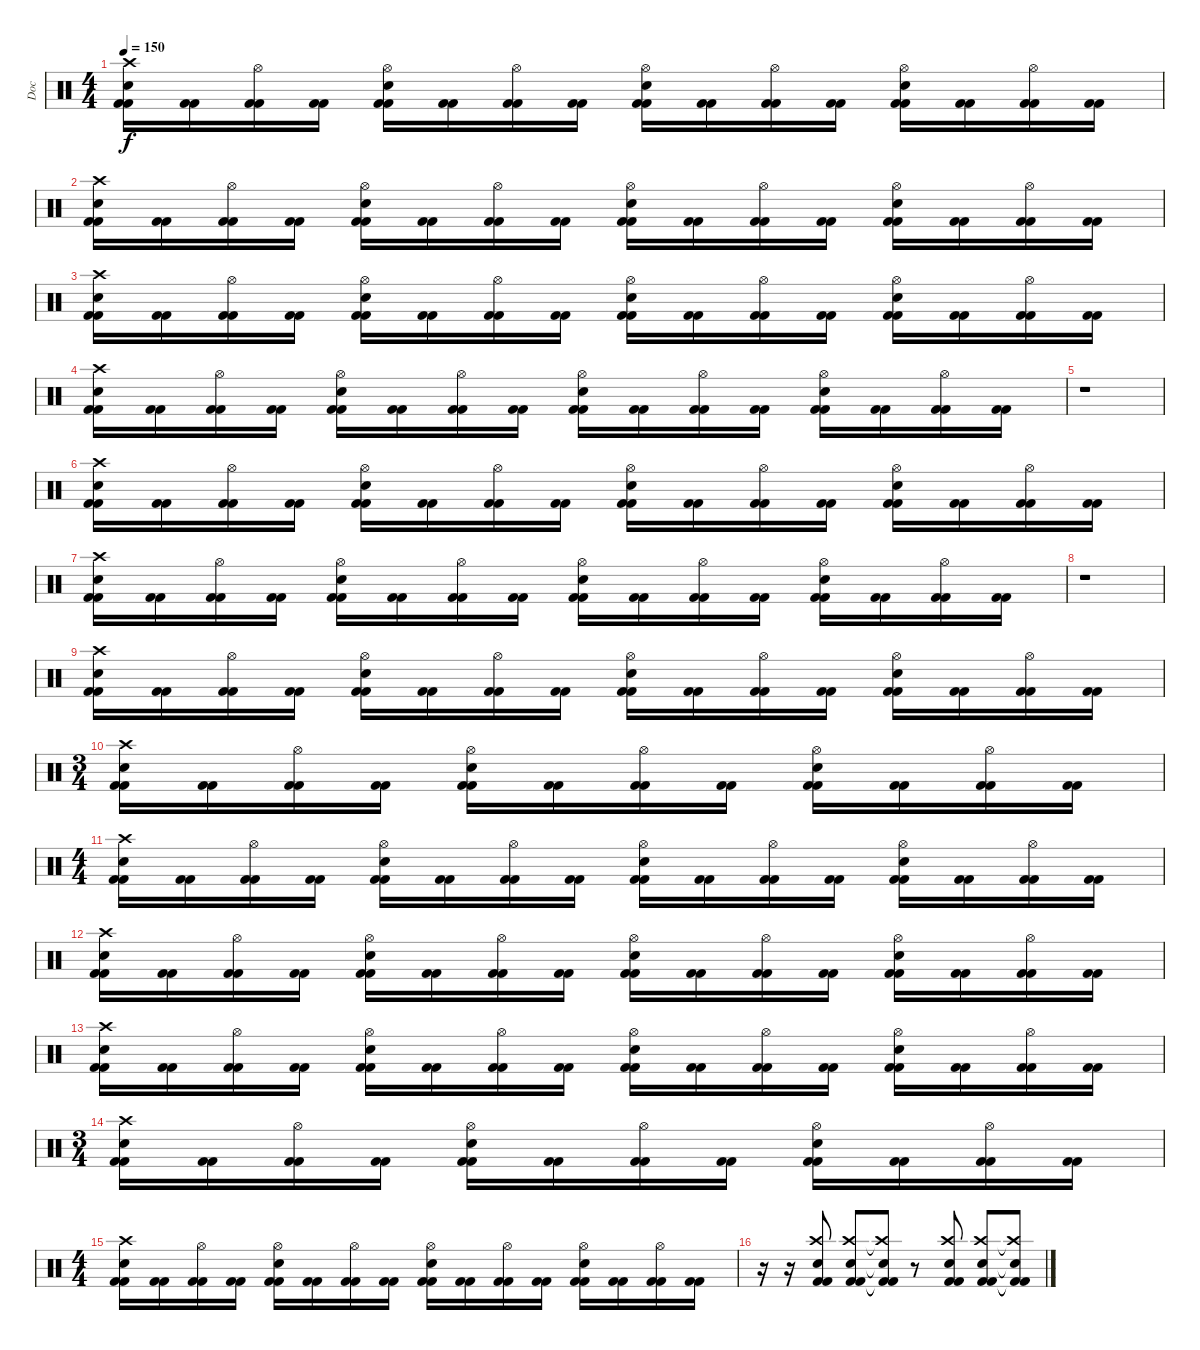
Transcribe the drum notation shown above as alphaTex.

\track ("Doc" "Doc") {instrument percussion}
\staff {score}
\articulation defaults
\ts (4 4)
\tempo 150
\clef neutral
\ks c
("Kick (hit) 2" "Crash high (hit)" "Electric Snare (hit)" "Kick (hit) 2").16{dy f} ("Kick (hit) 2" "Kick (hit) 2").16 ("Kick (hit) 2" "Hi-Hat (open)" "Kick (hit) 2").16 ("Kick (hit) 2" "Kick (hit) 2").16 ("Kick (hit) 2" "Hi-Hat (open)" "Electric Snare (hit)" "Kick (hit) 2").16 ("Kick (hit) 2" "Kick (hit) 2").16 ("Kick (hit) 2" "Hi-Hat (open)" "Kick (hit) 2").16 ("Kick (hit) 2" "Kick (hit) 2").16 ("Kick (hit) 2" "Hi-Hat (open)" "Electric Snare (hit)" "Kick (hit) 2").16 ("Kick (hit) 2" "Kick (hit) 2").16 ("Kick (hit) 2" "Hi-Hat (open)" "Kick (hit) 2").16 ("Kick (hit) 2" "Kick (hit) 2").16 ("Kick (hit) 2" "Hi-Hat (open)" "Electric Snare (hit)" "Kick (hit) 2").16 ("Kick (hit) 2" "Kick (hit) 2").16 ("Kick (hit) 2" "Hi-Hat (open)" "Kick (hit) 2").16 ("Kick (hit) 2" "Kick (hit) 2").16 |
("Kick (hit) 2" "Crash high (hit)" "Electric Snare (hit)" "Kick (hit) 2").16 ("Kick (hit) 2" "Kick (hit) 2").16 ("Kick (hit) 2" "Hi-Hat (open)" "Kick (hit) 2").16 ("Kick (hit) 2" "Kick (hit) 2").16 ("Kick (hit) 2" "Hi-Hat (open)" "Electric Snare (hit)" "Kick (hit) 2").16 ("Kick (hit) 2" "Kick (hit) 2").16 ("Kick (hit) 2" "Hi-Hat (open)" "Kick (hit) 2").16 ("Kick (hit) 2" "Kick (hit) 2").16 ("Kick (hit) 2" "Hi-Hat (open)" "Electric Snare (hit)" "Kick (hit) 2").16 ("Kick (hit) 2" "Kick (hit) 2").16 ("Kick (hit) 2" "Hi-Hat (open)" "Kick (hit) 2").16 ("Kick (hit) 2" "Kick (hit) 2").16 ("Kick (hit) 2" "Hi-Hat (open)" "Electric Snare (hit)" "Kick (hit) 2").16 ("Kick (hit) 2" "Kick (hit) 2").16 ("Kick (hit) 2" "Hi-Hat (open)" "Kick (hit) 2").16 ("Kick (hit) 2" "Kick (hit) 2").16 |
("Kick (hit) 2" "Crash high (hit)" "Electric Snare (hit)" "Kick (hit) 2").16 ("Kick (hit) 2" "Kick (hit) 2").16 ("Kick (hit) 2" "Hi-Hat (open)" "Kick (hit) 2").16 ("Kick (hit) 2" "Kick (hit) 2").16 ("Kick (hit) 2" "Hi-Hat (open)" "Electric Snare (hit)" "Kick (hit) 2").16 ("Kick (hit) 2" "Kick (hit) 2").16 ("Kick (hit) 2" "Hi-Hat (open)" "Kick (hit) 2").16 ("Kick (hit) 2" "Kick (hit) 2").16 ("Kick (hit) 2" "Hi-Hat (open)" "Electric Snare (hit)" "Kick (hit) 2").16 ("Kick (hit) 2" "Kick (hit) 2").16 ("Kick (hit) 2" "Hi-Hat (open)" "Kick (hit) 2").16 ("Kick (hit) 2" "Kick (hit) 2").16 ("Kick (hit) 2" "Hi-Hat (open)" "Electric Snare (hit)" "Kick (hit) 2").16 ("Kick (hit) 2" "Kick (hit) 2").16 ("Kick (hit) 2" "Hi-Hat (open)" "Kick (hit) 2").16 ("Kick (hit) 2" "Kick (hit) 2").16 |
("Kick (hit) 2" "Crash high (hit)" "Electric Snare (hit)" "Kick (hit) 2").16 ("Kick (hit) 2" "Kick (hit) 2").16 ("Kick (hit) 2" "Hi-Hat (open)" "Kick (hit) 2").16 ("Kick (hit) 2" "Kick (hit) 2").16 ("Kick (hit) 2" "Hi-Hat (open)" "Electric Snare (hit)" "Kick (hit) 2").16 ("Kick (hit) 2" "Kick (hit) 2").16 ("Kick (hit) 2" "Hi-Hat (open)" "Kick (hit) 2").16 ("Kick (hit) 2" "Kick (hit) 2").16 ("Kick (hit) 2" "Hi-Hat (open)" "Electric Snare (hit)" "Kick (hit) 2").16 ("Kick (hit) 2" "Kick (hit) 2").16 ("Kick (hit) 2" "Hi-Hat (open)" "Kick (hit) 2").16 ("Kick (hit) 2" "Kick (hit) 2").16 ("Kick (hit) 2" "Hi-Hat (open)" "Electric Snare (hit)" "Kick (hit) 2").16 ("Kick (hit) 2" "Kick (hit) 2").16 ("Kick (hit) 2" "Hi-Hat (open)" "Kick (hit) 2").16 ("Kick (hit) 2" "Kick (hit) 2").16 |
r.1 |
("Kick (hit) 2" "Crash high (hit)" "Electric Snare (hit)" "Kick (hit) 2").16 ("Kick (hit) 2" "Kick (hit) 2").16 ("Kick (hit) 2" "Hi-Hat (open)" "Kick (hit) 2").16 ("Kick (hit) 2" "Kick (hit) 2").16 ("Kick (hit) 2" "Hi-Hat (open)" "Electric Snare (hit)" "Kick (hit) 2").16 ("Kick (hit) 2" "Kick (hit) 2").16 ("Kick (hit) 2" "Hi-Hat (open)" "Kick (hit) 2").16 ("Kick (hit) 2" "Kick (hit) 2").16 ("Kick (hit) 2" "Hi-Hat (open)" "Electric Snare (hit)" "Kick (hit) 2").16 ("Kick (hit) 2" "Kick (hit) 2").16 ("Kick (hit) 2" "Hi-Hat (open)" "Kick (hit) 2").16 ("Kick (hit) 2" "Kick (hit) 2").16 ("Kick (hit) 2" "Hi-Hat (open)" "Electric Snare (hit)" "Kick (hit) 2").16 ("Kick (hit) 2" "Kick (hit) 2").16 ("Kick (hit) 2" "Hi-Hat (open)" "Kick (hit) 2").16 ("Kick (hit) 2" "Kick (hit) 2").16 |
("Kick (hit) 2" "Crash high (hit)" "Electric Snare (hit)" "Kick (hit) 2").16 ("Kick (hit) 2" "Kick (hit) 2").16 ("Kick (hit) 2" "Hi-Hat (open)" "Kick (hit) 2").16 ("Kick (hit) 2" "Kick (hit) 2").16 ("Kick (hit) 2" "Hi-Hat (open)" "Electric Snare (hit)" "Kick (hit) 2").16 ("Kick (hit) 2" "Kick (hit) 2").16 ("Kick (hit) 2" "Hi-Hat (open)" "Kick (hit) 2").16 ("Kick (hit) 2" "Kick (hit) 2").16 ("Kick (hit) 2" "Hi-Hat (open)" "Electric Snare (hit)" "Kick (hit) 2").16 ("Kick (hit) 2" "Kick (hit) 2").16 ("Kick (hit) 2" "Hi-Hat (open)" "Kick (hit) 2").16 ("Kick (hit) 2" "Kick (hit) 2").16 ("Kick (hit) 2" "Hi-Hat (open)" "Electric Snare (hit)" "Kick (hit) 2").16 ("Kick (hit) 2" "Kick (hit) 2").16 ("Kick (hit) 2" "Hi-Hat (open)" "Kick (hit) 2").16 ("Kick (hit) 2" "Kick (hit) 2").16 |
r.1 |
("Kick (hit) 2" "Crash high (hit)" "Electric Snare (hit)" "Kick (hit) 2").16 ("Kick (hit) 2" "Kick (hit) 2").16 ("Kick (hit) 2" "Hi-Hat (open)" "Kick (hit) 2").16 ("Kick (hit) 2" "Kick (hit) 2").16 ("Kick (hit) 2" "Hi-Hat (open)" "Electric Snare (hit)" "Kick (hit) 2").16 ("Kick (hit) 2" "Kick (hit) 2").16 ("Kick (hit) 2" "Hi-Hat (open)" "Kick (hit) 2").16 ("Kick (hit) 2" "Kick (hit) 2").16 ("Kick (hit) 2" "Hi-Hat (open)" "Electric Snare (hit)" "Kick (hit) 2").16 ("Kick (hit) 2" "Kick (hit) 2").16 ("Kick (hit) 2" "Hi-Hat (open)" "Kick (hit) 2").16 ("Kick (hit) 2" "Kick (hit) 2").16 ("Kick (hit) 2" "Hi-Hat (open)" "Electric Snare (hit)" "Kick (hit) 2").16 ("Kick (hit) 2" "Kick (hit) 2").16 ("Kick (hit) 2" "Hi-Hat (open)" "Kick (hit) 2").16 ("Kick (hit) 2" "Kick (hit) 2").16 |
\ts (3 4)
("Kick (hit) 2" "Crash high (hit)" "Electric Snare (hit)" "Kick (hit) 2").16 ("Kick (hit) 2" "Kick (hit) 2").16 ("Kick (hit) 2" "Hi-Hat (open)" "Kick (hit) 2").16 ("Kick (hit) 2" "Kick (hit) 2").16 ("Kick (hit) 2" "Hi-Hat (open)" "Electric Snare (hit)" "Kick (hit) 2").16 ("Kick (hit) 2" "Kick (hit) 2").16 ("Kick (hit) 2" "Hi-Hat (open)" "Kick (hit) 2").16 ("Kick (hit) 2" "Kick (hit) 2").16 ("Kick (hit) 2" "Hi-Hat (open)" "Electric Snare (hit)" "Kick (hit) 2").16 ("Kick (hit) 2" "Kick (hit) 2").16 ("Kick (hit) 2" "Hi-Hat (open)" "Kick (hit) 2").16 ("Kick (hit) 2" "Kick (hit) 2").16 |
\ts (4 4)
("Kick (hit) 2" "Crash high (hit)" "Electric Snare (hit)" "Kick (hit) 2").16 ("Kick (hit) 2" "Kick (hit) 2").16 ("Kick (hit) 2" "Hi-Hat (open)" "Kick (hit) 2").16 ("Kick (hit) 2" "Kick (hit) 2").16 ("Kick (hit) 2" "Hi-Hat (open)" "Electric Snare (hit)" "Kick (hit) 2").16 ("Kick (hit) 2" "Kick (hit) 2").16 ("Kick (hit) 2" "Hi-Hat (open)" "Kick (hit) 2").16 ("Kick (hit) 2" "Kick (hit) 2").16 ("Kick (hit) 2" "Hi-Hat (open)" "Electric Snare (hit)" "Kick (hit) 2").16 ("Kick (hit) 2" "Kick (hit) 2").16 ("Kick (hit) 2" "Hi-Hat (open)" "Kick (hit) 2").16 ("Kick (hit) 2" "Kick (hit) 2").16 ("Kick (hit) 2" "Hi-Hat (open)" "Electric Snare (hit)" "Kick (hit) 2").16 ("Kick (hit) 2" "Kick (hit) 2").16 ("Kick (hit) 2" "Hi-Hat (open)" "Kick (hit) 2").16 ("Kick (hit) 2" "Kick (hit) 2").16 |
("Kick (hit) 2" "Crash high (hit)" "Electric Snare (hit)" "Kick (hit) 2").16 ("Kick (hit) 2" "Kick (hit) 2").16 ("Kick (hit) 2" "Hi-Hat (open)" "Kick (hit) 2").16 ("Kick (hit) 2" "Kick (hit) 2").16 ("Kick (hit) 2" "Hi-Hat (open)" "Electric Snare (hit)" "Kick (hit) 2").16 ("Kick (hit) 2" "Kick (hit) 2").16 ("Kick (hit) 2" "Hi-Hat (open)" "Kick (hit) 2").16 ("Kick (hit) 2" "Kick (hit) 2").16 ("Kick (hit) 2" "Hi-Hat (open)" "Electric Snare (hit)" "Kick (hit) 2").16 ("Kick (hit) 2" "Kick (hit) 2").16 ("Kick (hit) 2" "Hi-Hat (open)" "Kick (hit) 2").16 ("Kick (hit) 2" "Kick (hit) 2").16 ("Kick (hit) 2" "Hi-Hat (open)" "Electric Snare (hit)" "Kick (hit) 2").16 ("Kick (hit) 2" "Kick (hit) 2").16 ("Kick (hit) 2" "Hi-Hat (open)" "Kick (hit) 2").16 ("Kick (hit) 2" "Kick (hit) 2").16 |
("Kick (hit) 2" "Crash high (hit)" "Electric Snare (hit)" "Kick (hit) 2").16 ("Kick (hit) 2" "Kick (hit) 2").16 ("Kick (hit) 2" "Hi-Hat (open)" "Kick (hit) 2").16 ("Kick (hit) 2" "Kick (hit) 2").16 ("Kick (hit) 2" "Hi-Hat (open)" "Electric Snare (hit)" "Kick (hit) 2").16 ("Kick (hit) 2" "Kick (hit) 2").16 ("Kick (hit) 2" "Hi-Hat (open)" "Kick (hit) 2").16 ("Kick (hit) 2" "Kick (hit) 2").16 ("Kick (hit) 2" "Hi-Hat (open)" "Electric Snare (hit)" "Kick (hit) 2").16 ("Kick (hit) 2" "Kick (hit) 2").16 ("Kick (hit) 2" "Hi-Hat (open)" "Kick (hit) 2").16 ("Kick (hit) 2" "Kick (hit) 2").16 ("Kick (hit) 2" "Hi-Hat (open)" "Electric Snare (hit)" "Kick (hit) 2").16 ("Kick (hit) 2" "Kick (hit) 2").16 ("Kick (hit) 2" "Hi-Hat (open)" "Kick (hit) 2").16 ("Kick (hit) 2" "Kick (hit) 2").16 |
\ts (3 4)
("Kick (hit) 2" "Crash high (hit)" "Electric Snare (hit)" "Kick (hit) 2").16 ("Kick (hit) 2" "Kick (hit) 2").16 ("Kick (hit) 2" "Hi-Hat (open)" "Kick (hit) 2").16 ("Kick (hit) 2" "Kick (hit) 2").16 ("Kick (hit) 2" "Hi-Hat (open)" "Electric Snare (hit)" "Kick (hit) 2").16 ("Kick (hit) 2" "Kick (hit) 2").16 ("Kick (hit) 2" "Hi-Hat (open)" "Kick (hit) 2").16 ("Kick (hit) 2" "Kick (hit) 2").16 ("Kick (hit) 2" "Hi-Hat (open)" "Electric Snare (hit)" "Kick (hit) 2").16 ("Kick (hit) 2" "Kick (hit) 2").16 ("Kick (hit) 2" "Hi-Hat (open)" "Kick (hit) 2").16 ("Kick (hit) 2" "Kick (hit) 2").16 |
\ts (4 4)
("Kick (hit) 2" "Crash high (hit)" "Electric Snare (hit)" "Kick (hit) 2").16 ("Kick (hit) 2" "Kick (hit) 2").16 ("Kick (hit) 2" "Hi-Hat (open)" "Kick (hit) 2").16 ("Kick (hit) 2" "Kick (hit) 2").16 ("Kick (hit) 2" "Hi-Hat (open)" "Electric Snare (hit)" "Kick (hit) 2").16 ("Kick (hit) 2" "Kick (hit) 2").16 ("Kick (hit) 2" "Hi-Hat (open)" "Kick (hit) 2").16 ("Kick (hit) 2" "Kick (hit) 2").16 ("Kick (hit) 2" "Hi-Hat (open)" "Electric Snare (hit)" "Kick (hit) 2").16 ("Kick (hit) 2" "Kick (hit) 2").16 ("Kick (hit) 2" "Hi-Hat (open)" "Kick (hit) 2").16 ("Kick (hit) 2" "Kick (hit) 2").16 ("Kick (hit) 2" "Hi-Hat (open)" "Electric Snare (hit)" "Kick (hit) 2").16 ("Kick (hit) 2" "Kick (hit) 2").16 ("Kick (hit) 2" "Hi-Hat (open)" "Kick (hit) 2").16 ("Kick (hit) 2" "Kick (hit) 2").16 |
r.16 r.16 ("Crash high (hit)" "Electric Snare (hit)" "Kick (hit) 2" "Kick (hit) 2").8 ("Crash high (hit)" "Electric Snare (hit)" "Kick (hit) 2" "Kick (hit) 2").8 ("Crash high (hit)"{t} "Electric Snare (hit)"{t} "Kick (hit) 2"{t} "Kick (hit) 2"{t}).8 r.8 ("Crash high (hit)" "Electric Snare (hit)" "Kick (hit) 2" "Kick (hit) 2").8 ("Crash high (hit)" "Electric Snare (hit)" "Kick (hit) 2" "Kick (hit) 2").8 ("Crash high (hit)"{t} "Electric Snare (hit)"{t} "Kick (hit) 2"{t} "Kick (hit) 2"{t}).8
